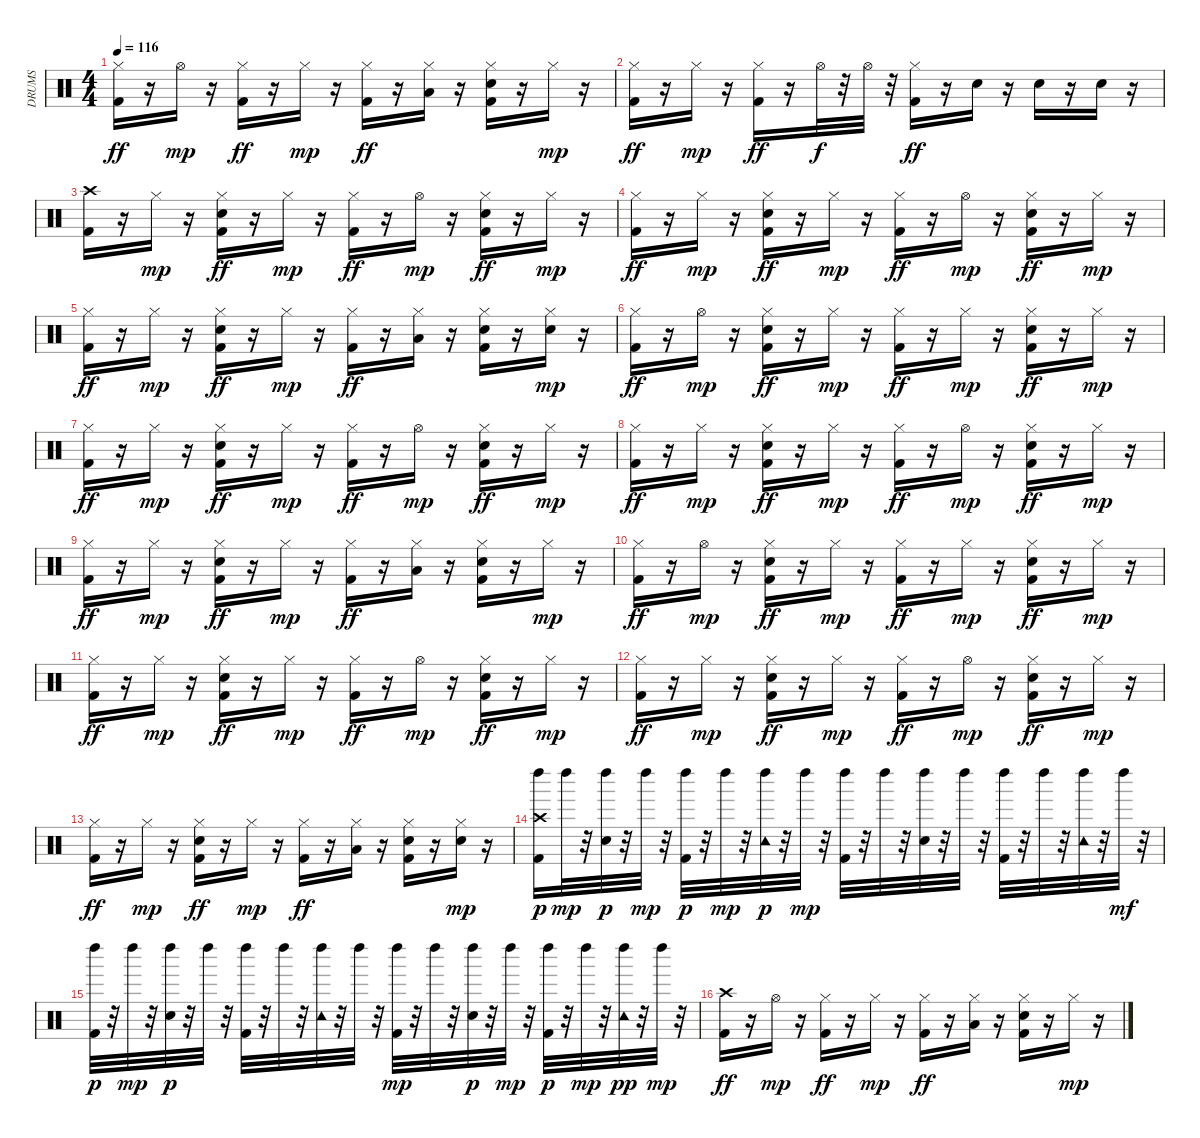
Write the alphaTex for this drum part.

\track ("DRUMS   " "DRUMS   ") {instrument percussion}
\staff {score}
\articulation defaults
\ts (4 4)
\tempo 116
\clef neutral
\ks c
("Hi-Hat (closed)" "Kick (hit) 2").16{dy ff} r.16 "Hi-Hat (open)".16{dy mp} r.16 ("Hi-Hat (closed)" "Kick (hit) 2").16{dy ff} r.16 "Hi-Hat (closed)".16{dy mp} r.16 ("Hi-Hat (closed)" "Kick (hit) 2").16{dy ff} r.16 ("Hi-Hat (closed)" "Low Tom (hit)").16 r.16 ("Electric Snare (hit)" "Hi-Hat (closed)" "Kick (hit) 2").16 r.16 "Hi-Hat (closed)".16{dy mp} r.16 |
("Hi-Hat (closed)" "Kick (hit) 2").16{dy ff} r.16 "Hi-Hat (closed)".16{dy mp} r.16 ("Hi-Hat (closed)" "Kick (hit) 2").16{dy ff} r.16 "Hi-Hat (open)".32{dy f} r.32 "Hi-Hat (open)".32 r.32 ("Hi-Hat (closed)" "Kick (hit) 2").16{dy ff} r.16 "Electric Snare (hit)".16 r.16 "Electric Snare (hit)".16 r.16 "Electric Snare (hit)".16 r.16 |
("Crash high (hit)" "Kick (hit) 2").16 r.16 "Hi-Hat (closed)".16{dy mp} r.16 ("Electric Snare (hit)" "Hi-Hat (closed)" "Kick (hit) 2").16{dy ff} r.16 "Hi-Hat (closed)".16{dy mp} r.16 ("Hi-Hat (closed)" "Kick (hit) 2").16{dy ff} r.16 "Hi-Hat (open)".16{dy mp} r.16 ("Electric Snare (hit)" "Hi-Hat (closed)" "Kick (hit) 2").16{dy ff} r.16 "Hi-Hat (closed)".16{dy mp} r.16 |
("Hi-Hat (closed)" "Kick (hit) 2").16{dy ff} r.16 "Hi-Hat (closed)".16{dy mp} r.16 ("Electric Snare (hit)" "Hi-Hat (closed)" "Kick (hit) 2").16{dy ff} r.16 "Hi-Hat (closed)".16{dy mp} r.16 ("Hi-Hat (closed)" "Kick (hit) 2").16{dy ff} r.16 "Hi-Hat (open)".16{dy mp} r.16 ("Electric Snare (hit)" "Hi-Hat (closed)" "Kick (hit) 2").16{dy ff} r.16 "Hi-Hat (closed)".16{dy mp} r.16 |
("Hi-Hat (closed)" "Kick (hit) 2").16{dy ff} r.16 "Hi-Hat (closed)".16{dy mp} r.16 ("Electric Snare (hit)" "Hi-Hat (closed)" "Kick (hit) 2").16{dy ff} r.16 "Hi-Hat (closed)".16{dy mp} r.16 ("Hi-Hat (closed)" "Kick (hit) 2").16{dy ff} r.16 ("Hi-Hat (closed)" "Low Tom (hit)").16 r.16 ("Electric Snare (hit)" "Hi-Hat (closed)" "Kick (hit) 2").16 r.16 ("Electric Snare (hit)" "Hi-Hat (closed)").16{dy mp} r.16 |
("Hi-Hat (closed)" "Kick (hit) 2").16{dy ff} r.16 "Hi-Hat (open)".16{dy mp} r.16 ("Electric Snare (hit)" "Hi-Hat (closed)" "Kick (hit) 2").16{dy ff} r.16 "Hi-Hat (closed)".16{dy mp} r.16 ("Hi-Hat (closed)" "Kick (hit) 2").16{dy ff} r.16 "Hi-Hat (closed)".16{dy mp} r.16 ("Electric Snare (hit)" "Hi-Hat (closed)" "Kick (hit) 2").16{dy ff} r.16 "Hi-Hat (closed)".16{dy mp} r.16 |
("Hi-Hat (closed)" "Kick (hit) 2").16{dy ff} r.16 "Hi-Hat (closed)".16{dy mp} r.16 ("Electric Snare (hit)" "Hi-Hat (closed)" "Kick (hit) 2").16{dy ff} r.16 "Hi-Hat (closed)".16{dy mp} r.16 ("Hi-Hat (closed)" "Kick (hit) 2").16{dy ff} r.16 "Hi-Hat (open)".16{dy mp} r.16 ("Electric Snare (hit)" "Hi-Hat (closed)" "Kick (hit) 2").16{dy ff} r.16 "Hi-Hat (closed)".16{dy mp} r.16 |
("Hi-Hat (closed)" "Kick (hit) 2").16{dy ff} r.16 "Hi-Hat (closed)".16{dy mp} r.16 ("Electric Snare (hit)" "Hi-Hat (closed)" "Kick (hit) 2").16{dy ff} r.16 "Hi-Hat (closed)".16{dy mp} r.16 ("Hi-Hat (closed)" "Kick (hit) 2").16{dy ff} r.16 "Hi-Hat (open)".16{dy mp} r.16 ("Electric Snare (hit)" "Hi-Hat (closed)" "Kick (hit) 2").16{dy ff} r.16 "Hi-Hat (closed)".16{dy mp} r.16 |
("Hi-Hat (closed)" "Kick (hit) 2").16{dy ff} r.16 "Hi-Hat (closed)".16{dy mp} r.16 ("Electric Snare (hit)" "Hi-Hat (closed)" "Kick (hit) 2").16{dy ff} r.16 "Hi-Hat (closed)".16{dy mp} r.16 ("Hi-Hat (closed)" "Kick (hit) 2").16{dy ff} r.16 ("Hi-Hat (closed)" "Low Tom (hit)").16 r.16 ("Electric Snare (hit)" "Hi-Hat (closed)" "Kick (hit) 2").16 r.16 "Hi-Hat (closed)".16{dy mp} r.16 |
("Hi-Hat (closed)" "Kick (hit) 2").16{dy ff} r.16 "Hi-Hat (open)".16{dy mp} r.16 ("Electric Snare (hit)" "Hi-Hat (closed)" "Kick (hit) 2").16{dy ff} r.16 "Hi-Hat (closed)".16{dy mp} r.16 ("Hi-Hat (closed)" "Kick (hit) 2").16{dy ff} r.16 "Hi-Hat (closed)".16{dy mp} r.16 ("Electric Snare (hit)" "Hi-Hat (closed)" "Kick (hit) 2").16{dy ff} r.16 "Hi-Hat (closed)".16{dy mp} r.16 |
("Hi-Hat (closed)" "Kick (hit) 2").16{dy ff} r.16 "Hi-Hat (closed)".16{dy mp} r.16 ("Electric Snare (hit)" "Hi-Hat (closed)" "Kick (hit) 2").16{dy ff} r.16 "Hi-Hat (closed)".16{dy mp} r.16 ("Hi-Hat (closed)" "Kick (hit) 2").16{dy ff} r.16 "Hi-Hat (open)".16{dy mp} r.16 ("Electric Snare (hit)" "Hi-Hat (closed)" "Kick (hit) 2").16{dy ff} r.16 "Hi-Hat (closed)".16{dy mp} r.16 |
("Hi-Hat (closed)" "Kick (hit) 2").16{dy ff} r.16 "Hi-Hat (closed)".16{dy mp} r.16 ("Electric Snare (hit)" "Hi-Hat (closed)" "Kick (hit) 2").16{dy ff} r.16 "Hi-Hat (closed)".16{dy mp} r.16 ("Hi-Hat (closed)" "Kick (hit) 2").16{dy ff} r.16 "Hi-Hat (open)".16{dy mp} r.16 ("Electric Snare (hit)" "Hi-Hat (closed)" "Kick (hit) 2").16{dy ff} r.16 "Hi-Hat (closed)".16{dy mp} r.16 |
("Hi-Hat (closed)" "Kick (hit) 2").16{dy ff} r.16 "Hi-Hat (closed)".16{dy mp} r.16 ("Electric Snare (hit)" "Hi-Hat (closed)" "Kick (hit) 2").16{dy ff} r.16 "Hi-Hat (closed)".16{dy mp} r.16 ("Hi-Hat (closed)" "Kick (hit) 2").16{dy ff} r.16 ("Hi-Hat (closed)" "Low Tom (hit)").16 r.16 ("Electric Snare (hit)" "Hi-Hat (closed)" "Kick (hit) 2").16 r.16 ("Electric Snare (hit)" "Hi-Hat (closed)").16{dy mp} r.16 |
("Crash high (hit)" "Kick (hit) 2" "Left Maraca (hit)").16{dy p} "Left Maraca (hit)".32{dy mp} r.32 ("Snare (hit) 2" "Left Maraca (hit)").32{dy p} r.32 "Left Maraca (hit)".32{dy mp} r.32 ("Kick (hit) 2" "Left Maraca (hit)").32{dy p} r.32 "Left Maraca (hit)".32{dy mp} r.32 ("Tambourine (hit)" "Left Maraca (hit)").32{dy p} r.32 "Left Maraca (hit)".32{dy mp} r.32 ("Kick (hit) 2" "Left Maraca (hit)").32 r.32 "Left Maraca (hit)".32 r.32 ("Snare (hit) 2" "Left Maraca (hit)").32 r.32 "Left Maraca (hit)".32 r.32 ("Kick (hit) 2" "Left Maraca (hit)").32 r.32 "Left Maraca (hit)".32 r.32 ("Tambourine (hit)" "Left Maraca (hit)").32 r.32 "Left Maraca (hit)".32{dy mf} r.32 |
("Kick (hit) 2" "Left Maraca (hit)").32{dy p} r.32 "Left Maraca (hit)".32{dy mp} r.32 ("Snare (hit) 2" "Left Maraca (hit)").32{dy p} r.32 "Left Maraca (hit)".32 r.32 ("Kick (hit) 2" "Left Maraca (hit)").32 r.32 "Left Maraca (hit)".32 r.32 ("Tambourine (hit)" "Left Maraca (hit)").32 r.32 "Left Maraca (hit)".32 r.32 ("Kick (hit) 2" "Left Maraca (hit)").32{dy mp} r.32 "Left Maraca (hit)".32 r.32 ("Snare (hit) 2" "Left Maraca (hit)").32{dy p} r.32 "Left Maraca (hit)".32{dy mp} r.32 ("Kick (hit) 2" "Left Maraca (hit)").32{dy p} r.32 "Left Maraca (hit)".32{dy mp} r.32 ("Tambourine (hit)" "Left Maraca (hit)").32{dy pp} r.32 "Left Maraca (hit)".32{dy mp} r.32 |
("Kick (hit) 2" "Crash high (hit)").16{dy ff} r.16 "Hi-Hat (open)".16{dy mp} r.16 ("Hi-Hat (closed)" "Kick (hit) 2").16{dy ff} r.16 "Hi-Hat (closed)".16{dy mp} r.16 ("Hi-Hat (closed)" "Kick (hit) 2").16{dy ff} r.16 ("Hi-Hat (closed)" "Low Tom (hit)").16 r.16 ("Electric Snare (hit)" "Hi-Hat (closed)" "Kick (hit) 2").16 r.16 "Hi-Hat (closed)".16{dy mp} r.16
